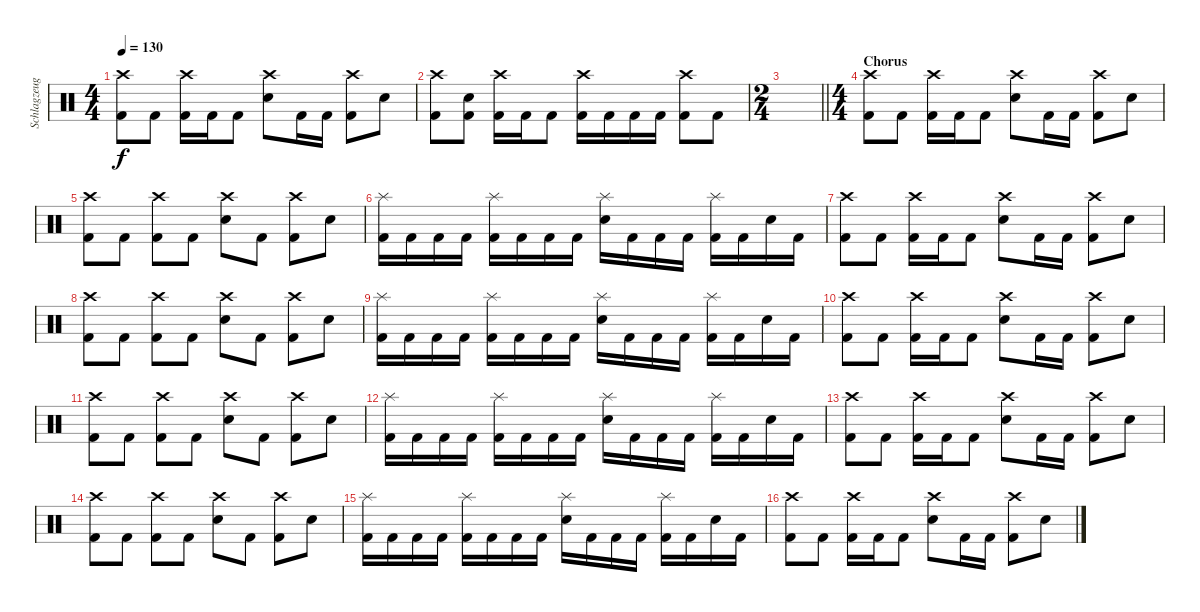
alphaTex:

\track ("Schlagzeug" "Schlagzeug") {instrument percussion}
\staff {score}
\articulation defaults
\ts (4 4)
\tempo 130
\clef neutral
\ks c
("Crash high (hit)" "Kick (hit) 2").8{dy f} "Kick (hit) 2".8 ("Crash high (hit)" "Kick (hit) 2").16 "Kick (hit) 2".16 "Kick (hit) 2".8 ("Crash high (hit)" "Electric Snare (hit)").8 "Kick (hit) 2".16 "Kick (hit) 2".16 ("Crash high (hit)" "Kick (hit) 2").8 "Electric Snare (hit)".8 |
("Crash high (hit)" "Kick (hit) 2").8 ("Snare (hit) 2" "Kick (hit) 2").8 ("Crash high (hit)" "Kick (hit) 2").16 "Kick (hit) 2".16 "Kick (hit) 2".8 ("Crash high (hit)" "Kick (hit) 2").16 "Kick (hit) 2".16 "Kick (hit) 2".16 "Kick (hit) 2".16 ("Crash high (hit)" "Kick (hit) 2").8 "Kick (hit) 2".8 |
\ts (2 4)
\barLineRight lightlight
|
\ts (4 4)
\section ("" "Chorus")
("Crash high (hit)" "Kick (hit) 2").8 "Kick (hit) 2".8 ("Crash high (hit)" "Kick (hit) 2").16 "Kick (hit) 2".16 "Kick (hit) 2".8 ("Crash high (hit)" "Electric Snare (hit)").8 "Kick (hit) 2".16 "Kick (hit) 2".16 ("Crash high (hit)" "Kick (hit) 2").8 "Electric Snare (hit)".8 |
("Crash high (hit)" "Kick (hit) 2").8 "Kick (hit) 2".8 ("Crash high (hit)" "Kick (hit) 2").8 "Kick (hit) 2".8 ("Crash high (hit)" "Electric Snare (hit)").8 "Kick (hit) 2".8 ("Crash high (hit)" "Kick (hit) 2").8 "Electric Snare (hit)".8 |
("Splash (hit)" "Kick (hit) 2").16 "Kick (hit) 2".16 "Kick (hit) 2".16 "Kick (hit) 2".16 ("Splash (hit)" "Kick (hit) 2").16 "Kick (hit) 2".16 "Kick (hit) 2".16 "Kick (hit) 2".16 ("Splash (hit)" "Electric Snare (hit)").16 "Kick (hit) 2".16 "Kick (hit) 2".16 "Kick (hit) 2".16 ("Splash (hit)" "Kick (hit) 2").16 "Kick (hit) 2".16 "Electric Snare (hit)".16 "Kick (hit) 2".16 |
("Crash high (hit)" "Kick (hit) 2").8 "Kick (hit) 2".8 ("Crash high (hit)" "Kick (hit) 2").16 "Kick (hit) 2".16 "Kick (hit) 2".8 ("Crash high (hit)" "Electric Snare (hit)").8 "Kick (hit) 2".16 "Kick (hit) 2".16 ("Crash high (hit)" "Kick (hit) 2").8 "Electric Snare (hit)".8 |
("Crash high (hit)" "Kick (hit) 2").8 "Kick (hit) 2".8 ("Crash high (hit)" "Kick (hit) 2").8 "Kick (hit) 2".8 ("Crash high (hit)" "Electric Snare (hit)").8 "Kick (hit) 2".8 ("Crash high (hit)" "Kick (hit) 2").8 "Electric Snare (hit)".8 |
("Splash (hit)" "Kick (hit) 2").16 "Kick (hit) 2".16 "Kick (hit) 2".16 "Kick (hit) 2".16 ("Splash (hit)" "Kick (hit) 2").16 "Kick (hit) 2".16 "Kick (hit) 2".16 "Kick (hit) 2".16 ("Splash (hit)" "Electric Snare (hit)").16 "Kick (hit) 2".16 "Kick (hit) 2".16 "Kick (hit) 2".16 ("Splash (hit)" "Kick (hit) 2").16 "Kick (hit) 2".16 "Electric Snare (hit)".16 "Kick (hit) 2".16 |
("Crash high (hit)" "Kick (hit) 2").8 "Kick (hit) 2".8 ("Crash high (hit)" "Kick (hit) 2").16 "Kick (hit) 2".16 "Kick (hit) 2".8 ("Crash high (hit)" "Electric Snare (hit)").8 "Kick (hit) 2".16 "Kick (hit) 2".16 ("Crash high (hit)" "Kick (hit) 2").8 "Electric Snare (hit)".8 |
("Crash high (hit)" "Kick (hit) 2").8 "Kick (hit) 2".8 ("Crash high (hit)" "Kick (hit) 2").8 "Kick (hit) 2".8 ("Crash high (hit)" "Electric Snare (hit)").8 "Kick (hit) 2".8 ("Crash high (hit)" "Kick (hit) 2").8 "Electric Snare (hit)".8 |
("Splash (hit)" "Kick (hit) 2").16 "Kick (hit) 2".16 "Kick (hit) 2".16 "Kick (hit) 2".16 ("Splash (hit)" "Kick (hit) 2").16 "Kick (hit) 2".16 "Kick (hit) 2".16 "Kick (hit) 2".16 ("Splash (hit)" "Electric Snare (hit)").16 "Kick (hit) 2".16 "Kick (hit) 2".16 "Kick (hit) 2".16 ("Splash (hit)" "Kick (hit) 2").16 "Kick (hit) 2".16 "Electric Snare (hit)".16 "Kick (hit) 2".16 |
("Crash high (hit)" "Kick (hit) 2").8 "Kick (hit) 2".8 ("Crash high (hit)" "Kick (hit) 2").16 "Kick (hit) 2".16 "Kick (hit) 2".8 ("Crash high (hit)" "Electric Snare (hit)").8 "Kick (hit) 2".16 "Kick (hit) 2".16 ("Crash high (hit)" "Kick (hit) 2").8 "Electric Snare (hit)".8 |
("Crash high (hit)" "Kick (hit) 2").8 "Kick (hit) 2".8 ("Crash high (hit)" "Kick (hit) 2").8 "Kick (hit) 2".8 ("Crash high (hit)" "Electric Snare (hit)").8 "Kick (hit) 2".8 ("Crash high (hit)" "Kick (hit) 2").8 "Electric Snare (hit)".8 |
("Splash (hit)" "Kick (hit) 2").16 "Kick (hit) 2".16 "Kick (hit) 2".16 "Kick (hit) 2".16 ("Splash (hit)" "Kick (hit) 2").16 "Kick (hit) 2".16 "Kick (hit) 2".16 "Kick (hit) 2".16 ("Splash (hit)" "Electric Snare (hit)").16 "Kick (hit) 2".16 "Kick (hit) 2".16 "Kick (hit) 2".16 ("Splash (hit)" "Kick (hit) 2").16 "Kick (hit) 2".16 "Electric Snare (hit)".16 "Kick (hit) 2".16 |
("Crash high (hit)" "Kick (hit) 2").8 "Kick (hit) 2".8 ("Crash high (hit)" "Kick (hit) 2").16 "Kick (hit) 2".16 "Kick (hit) 2".8 ("Crash high (hit)" "Electric Snare (hit)").8 "Kick (hit) 2".16 "Kick (hit) 2".16 ("Crash high (hit)" "Kick (hit) 2").8 "Electric Snare (hit)".8
